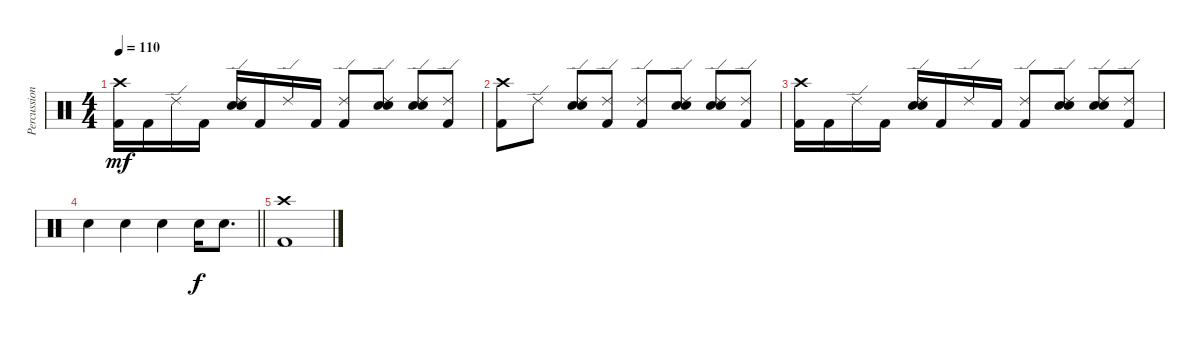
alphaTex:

\track ("Percussions" "Percussion") {instrument percussion}
\staff {score}
\articulation defaults
\ts (4 4)
\tempo 110
\clef neutral
\ks c
("Crash high (hit)" "Kick (hit) 2").16{dy mf} "Kick (hit) 2".16 "Ride (edge) 2".16 "Kick (hit) 2".16 ("Ride (edge) 2" "Hand Clap (hit)" "Electric Snare (hit)").16 "Kick (hit) 2".16 "Ride (edge) 2".16 "Kick (hit) 2".16 ("Ride (edge) 2" "Kick (hit) 2").8 ("Ride (edge) 2" "Hand Clap (hit)" "Electric Snare (hit)").8 ("Ride (edge) 2" "Hand Clap (hit)" "Electric Snare (hit)").8 ("Ride (edge) 2" "Kick (hit) 2").8 |
("Crash high (hit)" "Kick (hit) 2").8 "Ride (edge) 2".8 ("Ride (edge) 2" "Hand Clap (hit)" "Electric Snare (hit)").8 ("Ride (edge) 2" "Kick (hit) 2").8 ("Ride (edge) 2" "Kick (hit) 2").8 ("Ride (edge) 2" "Hand Clap (hit)" "Electric Snare (hit)").8 ("Ride (edge) 2" "Hand Clap (hit)" "Electric Snare (hit)").8 ("Ride (edge) 2" "Kick (hit) 2").8 |
("Crash high (hit)" "Kick (hit) 2").16 "Kick (hit) 2".16 "Ride (edge) 2".16 "Kick (hit) 2".16 ("Ride (edge) 2" "Hand Clap (hit)" "Electric Snare (hit)").16 "Kick (hit) 2".16 "Ride (edge) 2".16 "Kick (hit) 2".16 ("Ride (edge) 2" "Kick (hit) 2").8 ("Ride (edge) 2" "Hand Clap (hit)" "Electric Snare (hit)").8 ("Ride (edge) 2" "Hand Clap (hit)" "Electric Snare (hit)").8 ("Ride (edge) 2" "Kick (hit) 2").8 |
\barLineRight lightlight "Hand Clap (hit)".4 "Hand Clap (hit)".4 "Hand Clap (hit)".4 "Electric Snare (hit)".16{dy f} "Electric Snare (hit)".8{d}
|
("Crash high (hit)" "Kick (hit) 2").1
